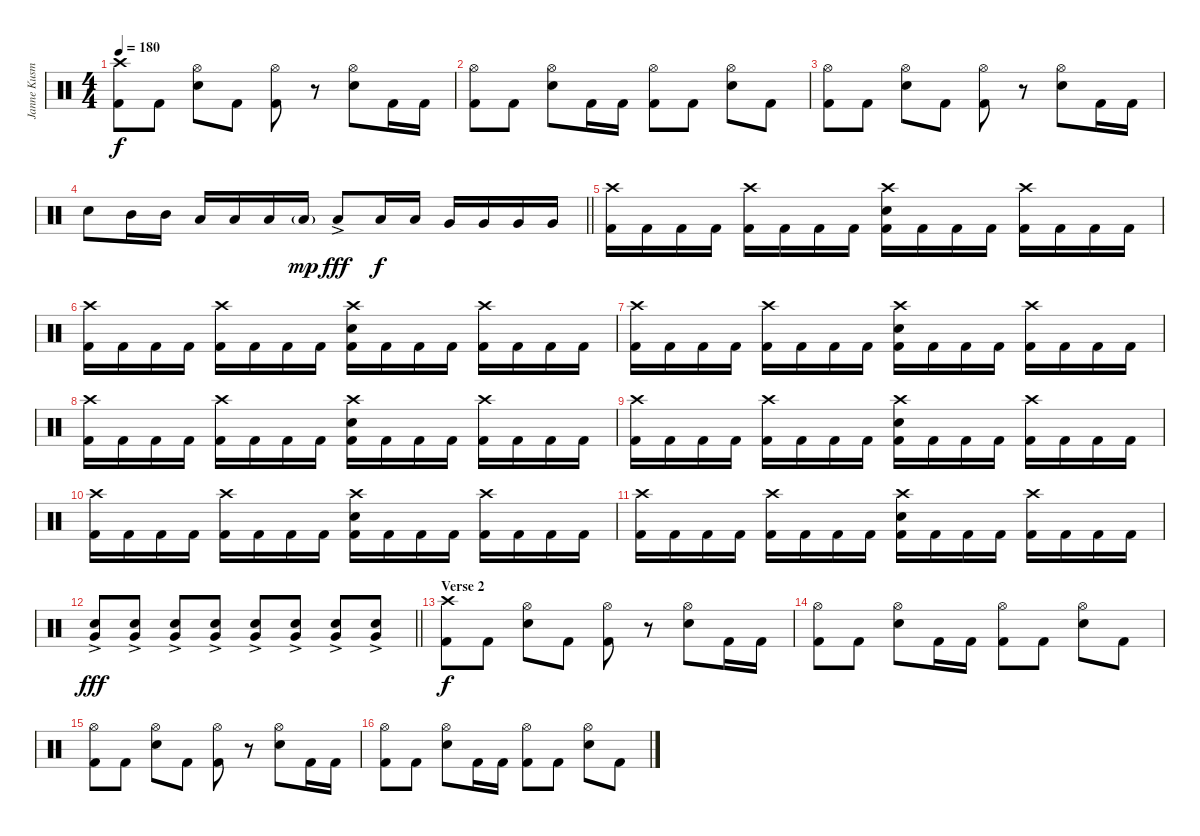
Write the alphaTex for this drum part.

\track ("Janne Kusmin - Drums" "Janne Kusm") {instrument percussion}
\staff {score}
\articulation defaults
\ts (4 4)
\tempo 180
\clef neutral
\ks c
("Crash high (hit)" "Kick (hit) 2").8{dy f} "Kick (hit) 2".8 ("Hi-Hat (open)" "Electric Snare (hit)").8 "Kick (hit) 2".8 ("Hi-Hat (open)" "Kick (hit) 2").8 r.8 ("Hi-Hat (open)" "Electric Snare (hit)").8 "Kick (hit) 2".16 "Kick (hit) 2".16 |
("Hi-Hat (open)" "Kick (hit) 2").8 "Kick (hit) 2".8 ("Hi-Hat (open)" "Electric Snare (hit)").8 "Kick (hit) 2".16 "Kick (hit) 2".16 ("Hi-Hat (open)" "Kick (hit) 2").8 "Kick (hit) 2".8 ("Hi-Hat (open)" "Electric Snare (hit)").8 "Kick (hit) 2".8 |
("Hi-Hat (open)" "Kick (hit) 2").8 "Kick (hit) 2".8 ("Hi-Hat (open)" "Electric Snare (hit)").8 "Kick (hit) 2".8 ("Hi-Hat (open)" "Kick (hit) 2").8 r.8 ("Hi-Hat (open)" "Electric Snare (hit)").8 "Kick (hit) 2".16 "Kick (hit) 2".16 |
\barLineRight lightlight "Electric Snare (hit)".8 "Mid Tom (hit)".16 "Mid Tom (hit)".16 "Low Tom (hit)".16 "Low Tom (hit)".16 "Low Tom (hit)".16 "Low Tom (hit)"{g}.16{dy mp} "Low Tom (hit)"{ac}.8{dy fff} "Low Tom (hit)".16{dy f} "Low Tom (hit)".16 "Very Low Tom (hit)".16 "Very Low Tom (hit)".16 "Very Low Tom (hit)".16 "Very Low Tom (hit)".16
|
\section ("" "")
("Crash high (hit)" "Kick (hit) 2").16 "Kick (hit) 2".16 "Kick (hit) 2".16 "Kick (hit) 2".16 ("Crash high (hit)" "Kick (hit) 2").16 "Kick (hit) 2".16 "Kick (hit) 2".16 "Kick (hit) 2".16 ("Crash high (hit)" "Electric Snare (hit)" "Kick (hit) 2").16 "Kick (hit) 2".16 "Kick (hit) 2".16 "Kick (hit) 2".16 ("Crash high (hit)" "Kick (hit) 2").16 "Kick (hit) 2".16 "Kick (hit) 2".16 "Kick (hit) 2".16 |
("Crash high (hit)" "Kick (hit) 2").16 "Kick (hit) 2".16 "Kick (hit) 2".16 "Kick (hit) 2".16 ("Crash high (hit)" "Kick (hit) 2").16 "Kick (hit) 2".16 "Kick (hit) 2".16 "Kick (hit) 2".16 ("Crash high (hit)" "Electric Snare (hit)" "Kick (hit) 2").16 "Kick (hit) 2".16 "Kick (hit) 2".16 "Kick (hit) 2".16 ("Crash high (hit)" "Kick (hit) 2").16 "Kick (hit) 2".16 "Kick (hit) 2".16 "Kick (hit) 2".16 |
("Crash high (hit)" "Kick (hit) 2").16 "Kick (hit) 2".16 "Kick (hit) 2".16 "Kick (hit) 2".16 ("Crash high (hit)" "Kick (hit) 2").16 "Kick (hit) 2".16 "Kick (hit) 2".16 "Kick (hit) 2".16 ("Crash high (hit)" "Electric Snare (hit)" "Kick (hit) 2").16 "Kick (hit) 2".16 "Kick (hit) 2".16 "Kick (hit) 2".16 ("Crash high (hit)" "Kick (hit) 2").16 "Kick (hit) 2".16 "Kick (hit) 2".16 "Kick (hit) 2".16 |
("Crash high (hit)" "Kick (hit) 2").16 "Kick (hit) 2".16 "Kick (hit) 2".16 "Kick (hit) 2".16 ("Crash high (hit)" "Kick (hit) 2").16 "Kick (hit) 2".16 "Kick (hit) 2".16 "Kick (hit) 2".16 ("Crash high (hit)" "Electric Snare (hit)" "Kick (hit) 2").16 "Kick (hit) 2".16 "Kick (hit) 2".16 "Kick (hit) 2".16 ("Crash high (hit)" "Kick (hit) 2").16 "Kick (hit) 2".16 "Kick (hit) 2".16 "Kick (hit) 2".16 |
("Crash high (hit)" "Kick (hit) 2").16 "Kick (hit) 2".16 "Kick (hit) 2".16 "Kick (hit) 2".16 ("Crash high (hit)" "Kick (hit) 2").16 "Kick (hit) 2".16 "Kick (hit) 2".16 "Kick (hit) 2".16 ("Crash high (hit)" "Electric Snare (hit)" "Kick (hit) 2").16 "Kick (hit) 2".16 "Kick (hit) 2".16 "Kick (hit) 2".16 ("Crash high (hit)" "Kick (hit) 2").16 "Kick (hit) 2".16 "Kick (hit) 2".16 "Kick (hit) 2".16 |
("Crash high (hit)" "Kick (hit) 2").16 "Kick (hit) 2".16 "Kick (hit) 2".16 "Kick (hit) 2".16 ("Crash high (hit)" "Kick (hit) 2").16 "Kick (hit) 2".16 "Kick (hit) 2".16 "Kick (hit) 2".16 ("Crash high (hit)" "Electric Snare (hit)" "Kick (hit) 2").16 "Kick (hit) 2".16 "Kick (hit) 2".16 "Kick (hit) 2".16 ("Crash high (hit)" "Kick (hit) 2").16 "Kick (hit) 2".16 "Kick (hit) 2".16 "Kick (hit) 2".16 |
("Crash high (hit)" "Kick (hit) 2").16 "Kick (hit) 2".16 "Kick (hit) 2".16 "Kick (hit) 2".16 ("Crash high (hit)" "Kick (hit) 2").16 "Kick (hit) 2".16 "Kick (hit) 2".16 "Kick (hit) 2".16 ("Crash high (hit)" "Electric Snare (hit)" "Kick (hit) 2").16 "Kick (hit) 2".16 "Kick (hit) 2".16 "Kick (hit) 2".16 ("Crash high (hit)" "Kick (hit) 2").16 "Kick (hit) 2".16 "Kick (hit) 2".16 "Kick (hit) 2".16 |
\barLineRight lightlight
("Very Low Tom (hit)"{ac} "Electric Snare (hit)").8{dy fff} ("Very Low Tom (hit)"{ac} "Electric Snare (hit)").8 ("Very Low Tom (hit)"{ac} "Electric Snare (hit)").8 ("Very Low Tom (hit)"{ac} "Electric Snare (hit)").8 ("Very Low Tom (hit)"{ac} "Electric Snare (hit)").8 ("Very Low Tom (hit)"{ac} "Electric Snare (hit)").8 ("Very Low Tom (hit)"{ac} "Electric Snare (hit)").8 ("Very Low Tom (hit)"{ac} "Electric Snare (hit)").8 |
\section ("" "Verse 2")
("Crash high (hit)" "Kick (hit) 2").8{dy f} "Kick (hit) 2".8 ("Hi-Hat (open)" "Electric Snare (hit)").8 "Kick (hit) 2".8 ("Hi-Hat (open)" "Kick (hit) 2").8 r.8 ("Hi-Hat (open)" "Electric Snare (hit)").8 "Kick (hit) 2".16 "Kick (hit) 2".16 |
("Hi-Hat (open)" "Kick (hit) 2").8 "Kick (hit) 2".8 ("Hi-Hat (open)" "Electric Snare (hit)").8 "Kick (hit) 2".16 "Kick (hit) 2".16 ("Hi-Hat (open)" "Kick (hit) 2").8 "Kick (hit) 2".8 ("Hi-Hat (open)" "Electric Snare (hit)").8 "Kick (hit) 2".8 |
("Hi-Hat (open)" "Kick (hit) 2").8 "Kick (hit) 2".8 ("Hi-Hat (open)" "Electric Snare (hit)").8 "Kick (hit) 2".8 ("Hi-Hat (open)" "Kick (hit) 2").8 r.8 ("Hi-Hat (open)" "Electric Snare (hit)").8 "Kick (hit) 2".16 "Kick (hit) 2".16 |
("Hi-Hat (open)" "Kick (hit) 2").8 "Kick (hit) 2".8 ("Hi-Hat (open)" "Electric Snare (hit)").8 "Kick (hit) 2".16 "Kick (hit) 2".16 ("Hi-Hat (open)" "Kick (hit) 2").8 "Kick (hit) 2".8 ("Hi-Hat (open)" "Electric Snare (hit)").8 "Kick (hit) 2".8
